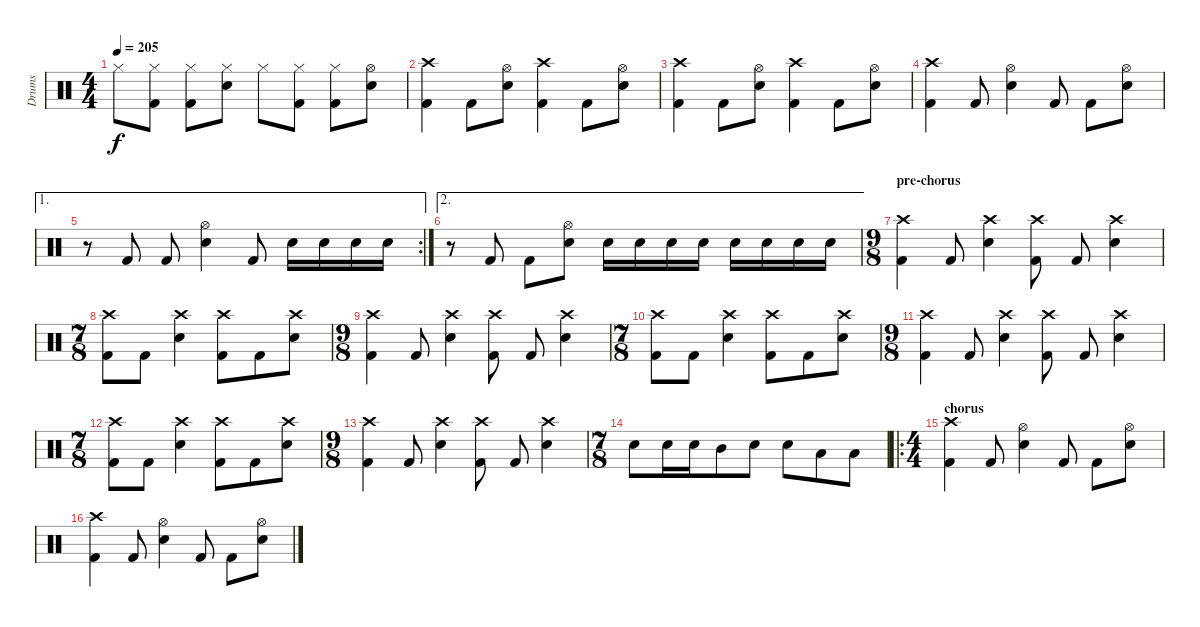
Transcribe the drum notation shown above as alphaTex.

\track ("Drums" "Drums") {instrument percussion}
\staff {score}
\articulation defaults
\ts (4 4)
\tempo 205
\clef neutral
\ks c "Hi-Hat (closed)".8{dy f}
("Hi-Hat (closed)" "Kick (hit) 2").8 ("Hi-Hat (closed)" "Kick (hit) 2").8 ("Hi-Hat (closed)" "Electric Snare (hit)").8 "Hi-Hat (closed)".8 ("Hi-Hat (closed)" "Kick (hit) 2").8 ("Hi-Hat (closed)" "Kick (hit) 2").8 ("Hi-Hat (open)" "Electric Snare (hit)").8 |
("Crash high (hit)" "Kick (hit) 2").4 "Kick (hit) 2".8 ("Hi-Hat (open)" "Electric Snare (hit)").8 ("Crash high (hit)" "Kick (hit) 2").4 "Kick (hit) 2".8 ("Hi-Hat (open)" "Electric Snare (hit)").8 |
("Crash high (hit)" "Kick (hit) 2").4 "Kick (hit) 2".8 ("Hi-Hat (open)" "Electric Snare (hit)").8 ("Crash high (hit)" "Kick (hit) 2").4 "Kick (hit) 2".8 ("Hi-Hat (open)" "Electric Snare (hit)").8 |
("Crash high (hit)" "Kick (hit) 2").4 "Kick (hit) 2".8 ("Hi-Hat (open)" "Electric Snare (hit)").4 "Kick (hit) 2".8 "Kick (hit) 2".8 ("Hi-Hat (open)" "Electric Snare (hit)").8 |
\ae 1
\rc 2
r.8 "Kick (hit) 2".8 "Kick (hit) 2".8 ("Hi-Hat (open)" "Electric Snare (hit)").4 "Kick (hit) 2".8 "Electric Snare (hit)".16 "Electric Snare (hit)".16 "Electric Snare (hit)".16 "Electric Snare (hit)".16 |
\ae 2
r.8 "Kick (hit) 2".8 "Kick (hit) 2".8 ("Hi-Hat (open)" "Electric Snare (hit)").8 "Electric Snare (hit)".16 "Electric Snare (hit)".16 "Electric Snare (hit)".16 "Electric Snare (hit)".16 "Electric Snare (hit)".16 "Electric Snare (hit)".16 "Electric Snare (hit)".16 "Electric Snare (hit)".16 |
\ts (9 8)
\section ("" "pre-chorus")
("Crash high (hit)" "Kick (hit) 2").4 "Kick (hit) 2".8 ("Crash high (hit)" "Electric Snare (hit)").4 ("Crash high (hit)" "Kick (hit) 2").8 "Kick (hit) 2".8 ("Crash high (hit)" "Electric Snare (hit)").4 |
\ts (7 8)
("Crash high (hit)" "Kick (hit) 2").8 "Kick (hit) 2".8 ("Crash high (hit)" "Electric Snare (hit)").4 ("Crash high (hit)" "Kick (hit) 2").8 "Kick (hit) 2".8 ("Crash high (hit)" "Electric Snare (hit)").8 |
\ts (9 8)
("Crash high (hit)" "Kick (hit) 2").4 "Kick (hit) 2".8 ("Crash high (hit)" "Electric Snare (hit)").4 ("Crash high (hit)" "Kick (hit) 2").8 "Kick (hit) 2".8 ("Crash high (hit)" "Electric Snare (hit)").4 |
\ts (7 8)
("Crash high (hit)" "Kick (hit) 2").8 "Kick (hit) 2".8 ("Crash high (hit)" "Electric Snare (hit)").4 ("Crash high (hit)" "Kick (hit) 2").8 "Kick (hit) 2".8 ("Crash high (hit)" "Electric Snare (hit)").8 |
\ts (9 8)
("Crash high (hit)" "Kick (hit) 2").4 "Kick (hit) 2".8 ("Crash high (hit)" "Electric Snare (hit)").4 ("Crash high (hit)" "Kick (hit) 2").8 "Kick (hit) 2".8 ("Crash high (hit)" "Electric Snare (hit)").4 |
\ts (7 8)
("Crash high (hit)" "Kick (hit) 2").8 "Kick (hit) 2".8 ("Crash high (hit)" "Electric Snare (hit)").4 ("Crash high (hit)" "Kick (hit) 2").8 "Kick (hit) 2".8 ("Crash high (hit)" "Electric Snare (hit)").8 |
\ts (9 8)
("Crash high (hit)" "Kick (hit) 2").4 "Kick (hit) 2".8 ("Crash high (hit)" "Electric Snare (hit)").4 ("Crash high (hit)" "Kick (hit) 2").8 "Kick (hit) 2".8 ("Crash high (hit)" "Electric Snare (hit)").4 |
\ts (7 8)
"Electric Snare (hit)".8 "Electric Snare (hit)".16 "Electric Snare (hit)".16 "Mid Tom (hit)".8 "Electric Snare (hit)".8 "Electric Snare (hit)".8 "Low Tom (hit)".8 "Low Tom (hit)".8 |
\ro
\ts (4 4)
\section ("" "chorus")
("Crash high (hit)" "Kick (hit) 2").4 "Kick (hit) 2".8 ("Hi-Hat (open)" "Electric Snare (hit)").4 "Kick (hit) 2".8 "Kick (hit) 2".8 ("Hi-Hat (open)" "Electric Snare (hit)").8 |
("Crash high (hit)" "Kick (hit) 2").4 "Kick (hit) 2".8 ("Hi-Hat (open)" "Electric Snare (hit)").4 "Kick (hit) 2".8 "Kick (hit) 2".8 ("Hi-Hat (open)" "Electric Snare (hit)").8
